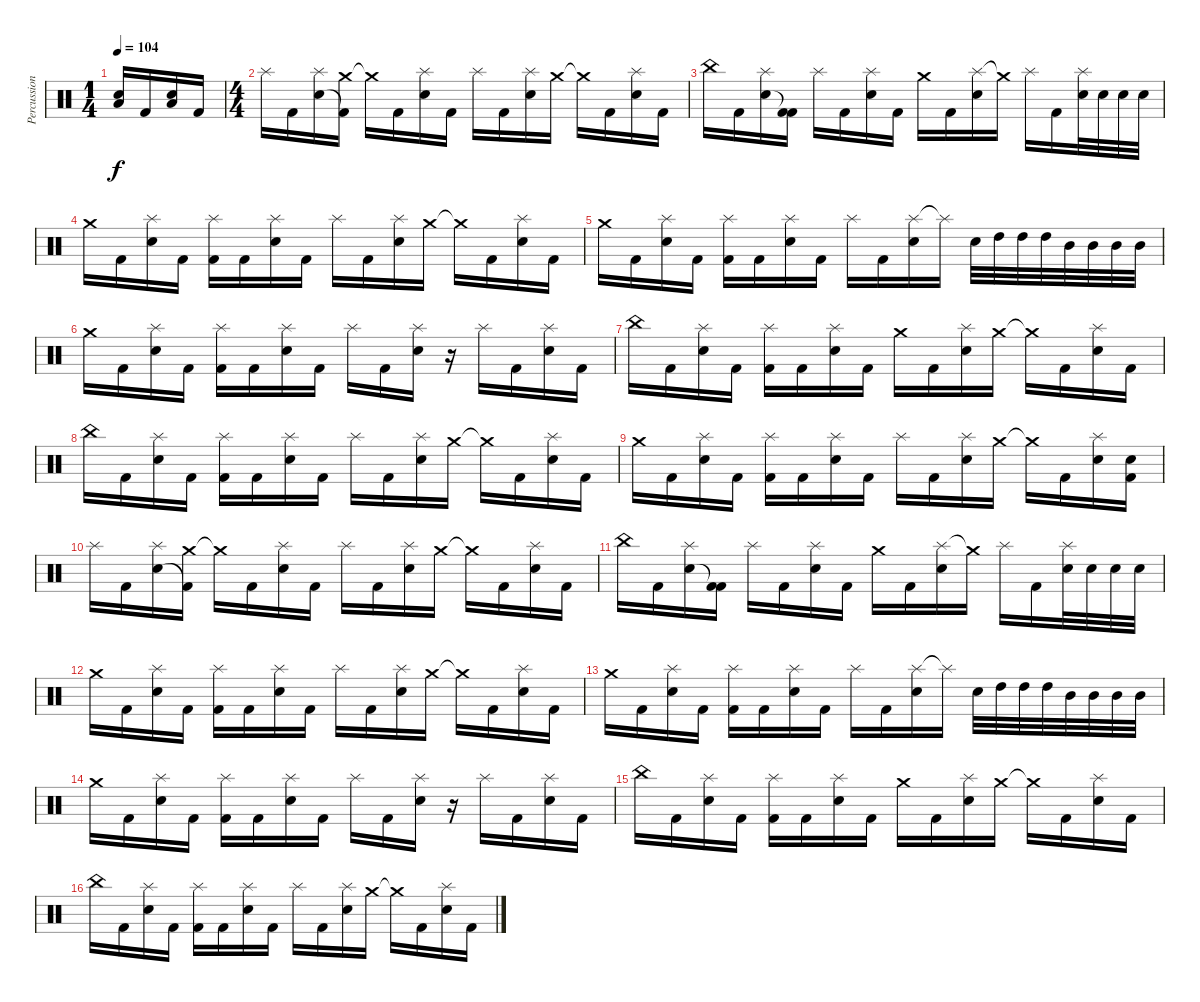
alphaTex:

\track ("Percussion" "Percussion") {instrument percussion}
\staff {score}
\articulation defaults
\ts (1 4)
\tempo 104
\clef neutral
\ks c
("Low Floor Tom (hit)" "Electric Snare (hit)").16{dy f} "Kick (hit) 2".16 ("Low Floor Tom (hit)" "Electric Snare (hit)").16 "Kick (hit) 2".16 |
\ts (4 4)
"Splash (hit)".16 "Kick (hit) 2".16 ("Splash (hit)" "Electric Snare (hit)").16 ("Crash medium (hit)" "Kick (hit) 2"{t}).16 "Crash medium (hit)"{t}.16 "Kick (hit) 2".16 ("Splash (hit)" "Electric Snare (hit)").16 "Kick (hit) 2".16 "Splash (hit)".16 "Kick (hit) 2".16 ("Splash (hit)" "Electric Snare (hit)").16 "Crash medium (hit)".16 "Crash medium (hit)"{t}.16 "Kick (hit) 2".16 ("Electric Snare (hit)" "Splash (hit)").16 "Kick (hit) 2".16 |
"China (hit)".16 "Kick (hit) 2".16 ("Splash (hit)" "Electric Snare (hit)").16 ("Kick (hit) 2" "Kick (hit) 2"{t}).16 "Splash (hit)".16 "Kick (hit) 2".16 ("Splash (hit)" "Electric Snare (hit)").16 "Kick (hit) 2".16 "Crash medium (hit)".16 "Kick (hit) 2".16 ("Splash (hit)" "Electric Snare (hit)").16 "Crash medium (hit)"{t}.16 "Splash (hit)".16 "Kick (hit) 2".16 ("Electric Snare (hit)" "Splash (hit)").32 "Electric Snare (hit)".32 "Electric Snare (hit)".32 "Electric Snare (hit)".32 |
"Crash medium (hit)".16 "Kick (hit) 2".16 ("Splash (hit)" "Electric Snare (hit)").16 "Kick (hit) 2".16 ("Splash (hit)" "Kick (hit) 2").16 "Kick (hit) 2".16 ("Splash (hit)" "Electric Snare (hit)").16 "Kick (hit) 2".16 "Splash (hit)".16 "Kick (hit) 2".16 ("Splash (hit)" "Electric Snare (hit)").16 "Crash medium (hit)".16 "Crash medium (hit)"{t}.16 "Kick (hit) 2".16 ("Electric Snare (hit)" "Splash (hit)").16 "Kick (hit) 2".16 |
"Crash medium (hit)".16 "Kick (hit) 2".16 ("Splash (hit)" "Electric Snare (hit)").16 "Kick (hit) 2".16 ("Splash (hit)" "Kick (hit) 2").16 "Kick (hit) 2".16 ("Splash (hit)" "Electric Snare (hit)").16 "Kick (hit) 2".16 "Splash (hit)".16 "Kick (hit) 2".16 ("Splash (hit)" "Electric Snare (hit)").16 "Splash (hit)"{t}.16 "Electric Snare (hit)".32 "High Tom (hit)".32 "High Tom (hit)".32 "High Tom (hit)".32 "Mid Tom (hit)".32 "Mid Tom (hit)".32 "Mid Tom (hit)".32 "Mid Tom (hit)".32 |
"Crash medium (hit)".16 "Kick (hit) 2".16 ("Splash (hit)" "Electric Snare (hit)").16 "Kick (hit) 2".16 ("Splash (hit)" "Kick (hit) 2").16 "Kick (hit) 2".16 ("Splash (hit)" "Electric Snare (hit)").16 "Kick (hit) 2".16 "Splash (hit)".16 "Kick (hit) 2".16 ("Splash (hit)" "Electric Snare (hit)").16 r.16 "Splash (hit)".16 "Kick (hit) 2".16 ("Electric Snare (hit)" "Splash (hit)").16 "Kick (hit) 2".16 |
"China (hit)".16 "Kick (hit) 2".16 ("Splash (hit)" "Electric Snare (hit)").16 "Kick (hit) 2".16 ("Splash (hit)" "Kick (hit) 2").16 "Kick (hit) 2".16 ("Splash (hit)" "Electric Snare (hit)").16 "Kick (hit) 2".16 "Crash medium (hit)".16 "Kick (hit) 2".16 ("Splash (hit)" "Electric Snare (hit)").16 "Crash medium (hit)".16 "Crash medium (hit)"{t}.16 "Kick (hit) 2".16 ("Electric Snare (hit)" "Splash (hit)").16 "Kick (hit) 2".16 |
"China (hit)".16 "Kick (hit) 2".16 ("Splash (hit)" "Electric Snare (hit)").16 "Kick (hit) 2".16 ("Splash (hit)" "Kick (hit) 2").16 "Kick (hit) 2".16 ("Splash (hit)" "Electric Snare (hit)").16 "Kick (hit) 2".16 "Splash (hit)".16 "Kick (hit) 2".16 ("Splash (hit)" "Electric Snare (hit)").16 "Crash medium (hit)".16 "Crash medium (hit)"{t}.16 "Kick (hit) 2".16 ("Electric Snare (hit)" "Splash (hit)").16 "Kick (hit) 2".16 |
"Crash medium (hit)".16 "Kick (hit) 2".16 ("Splash (hit)" "Electric Snare (hit)").16 "Kick (hit) 2".16 ("Splash (hit)" "Kick (hit) 2").16 "Kick (hit) 2".16 ("Splash (hit)" "Electric Snare (hit)").16 "Kick (hit) 2".16 "Splash (hit)".16 "Kick (hit) 2".16 ("Splash (hit)" "Electric Snare (hit)").16 "Crash medium (hit)".16 "Crash medium (hit)"{t}.16 "Kick (hit) 2".16 ("Electric Snare (hit)" "Splash (hit)").16 ("Electric Snare (hit)" "Kick (hit) 2").16 |
"Splash (hit)".16 "Kick (hit) 2".16 ("Splash (hit)" "Electric Snare (hit)").16 ("Crash medium (hit)" "Kick (hit) 2"{t}).16 "Crash medium (hit)"{t}.16 "Kick (hit) 2".16 ("Splash (hit)" "Electric Snare (hit)").16 "Kick (hit) 2".16 "Splash (hit)".16 "Kick (hit) 2".16 ("Splash (hit)" "Electric Snare (hit)").16 "Crash medium (hit)".16 "Crash medium (hit)"{t}.16 "Kick (hit) 2".16 ("Electric Snare (hit)" "Splash (hit)").16 "Kick (hit) 2".16 |
"China (hit)".16 "Kick (hit) 2".16 ("Splash (hit)" "Electric Snare (hit)").16 ("Kick (hit) 2" "Kick (hit) 2"{t}).16 "Splash (hit)".16 "Kick (hit) 2".16 ("Splash (hit)" "Electric Snare (hit)").16 "Kick (hit) 2".16 "Crash medium (hit)".16 "Kick (hit) 2".16 ("Splash (hit)" "Electric Snare (hit)").16 "Crash medium (hit)"{t}.16 "Splash (hit)".16 "Kick (hit) 2".16 ("Electric Snare (hit)" "Splash (hit)").32 "Electric Snare (hit)".32 "Electric Snare (hit)".32 "Electric Snare (hit)".32 |
"Crash medium (hit)".16 "Kick (hit) 2".16 ("Splash (hit)" "Electric Snare (hit)").16 "Kick (hit) 2".16 ("Splash (hit)" "Kick (hit) 2").16 "Kick (hit) 2".16 ("Splash (hit)" "Electric Snare (hit)").16 "Kick (hit) 2".16 "Splash (hit)".16 "Kick (hit) 2".16 ("Splash (hit)" "Electric Snare (hit)").16 "Crash medium (hit)".16 "Crash medium (hit)"{t}.16 "Kick (hit) 2".16 ("Electric Snare (hit)" "Splash (hit)").16 "Kick (hit) 2".16 |
"Crash medium (hit)".16 "Kick (hit) 2".16 ("Splash (hit)" "Electric Snare (hit)").16 "Kick (hit) 2".16 ("Splash (hit)" "Kick (hit) 2").16 "Kick (hit) 2".16 ("Splash (hit)" "Electric Snare (hit)").16 "Kick (hit) 2".16 "Splash (hit)".16 "Kick (hit) 2".16 ("Splash (hit)" "Electric Snare (hit)").16 "Splash (hit)"{t}.16 "Electric Snare (hit)".32 "High Tom (hit)".32 "High Tom (hit)".32 "High Tom (hit)".32 "Mid Tom (hit)".32 "Mid Tom (hit)".32 "Mid Tom (hit)".32 "Mid Tom (hit)".32 |
"Crash medium (hit)".16 "Kick (hit) 2".16 ("Splash (hit)" "Electric Snare (hit)").16 "Kick (hit) 2".16 ("Splash (hit)" "Kick (hit) 2").16 "Kick (hit) 2".16 ("Splash (hit)" "Electric Snare (hit)").16 "Kick (hit) 2".16 "Splash (hit)".16 "Kick (hit) 2".16 ("Splash (hit)" "Electric Snare (hit)").16 r.16 "Splash (hit)".16 "Kick (hit) 2".16 ("Electric Snare (hit)" "Splash (hit)").16 "Kick (hit) 2".16 |
"China (hit)".16 "Kick (hit) 2".16 ("Splash (hit)" "Electric Snare (hit)").16 "Kick (hit) 2".16 ("Splash (hit)" "Kick (hit) 2").16 "Kick (hit) 2".16 ("Splash (hit)" "Electric Snare (hit)").16 "Kick (hit) 2".16 "Crash medium (hit)".16 "Kick (hit) 2".16 ("Splash (hit)" "Electric Snare (hit)").16 "Crash medium (hit)".16 "Crash medium (hit)"{t}.16 "Kick (hit) 2".16 ("Electric Snare (hit)" "Splash (hit)").16 "Kick (hit) 2".16 |
"China (hit)".16 "Kick (hit) 2".16 ("Splash (hit)" "Electric Snare (hit)").16 "Kick (hit) 2".16 ("Splash (hit)" "Kick (hit) 2").16 "Kick (hit) 2".16 ("Splash (hit)" "Electric Snare (hit)").16 "Kick (hit) 2".16 "Splash (hit)".16 "Kick (hit) 2".16 ("Splash (hit)" "Electric Snare (hit)").16 "Crash medium (hit)".16 "Crash medium (hit)"{t}.16 "Kick (hit) 2".16 ("Electric Snare (hit)" "Splash (hit)").16 "Kick (hit) 2".16
